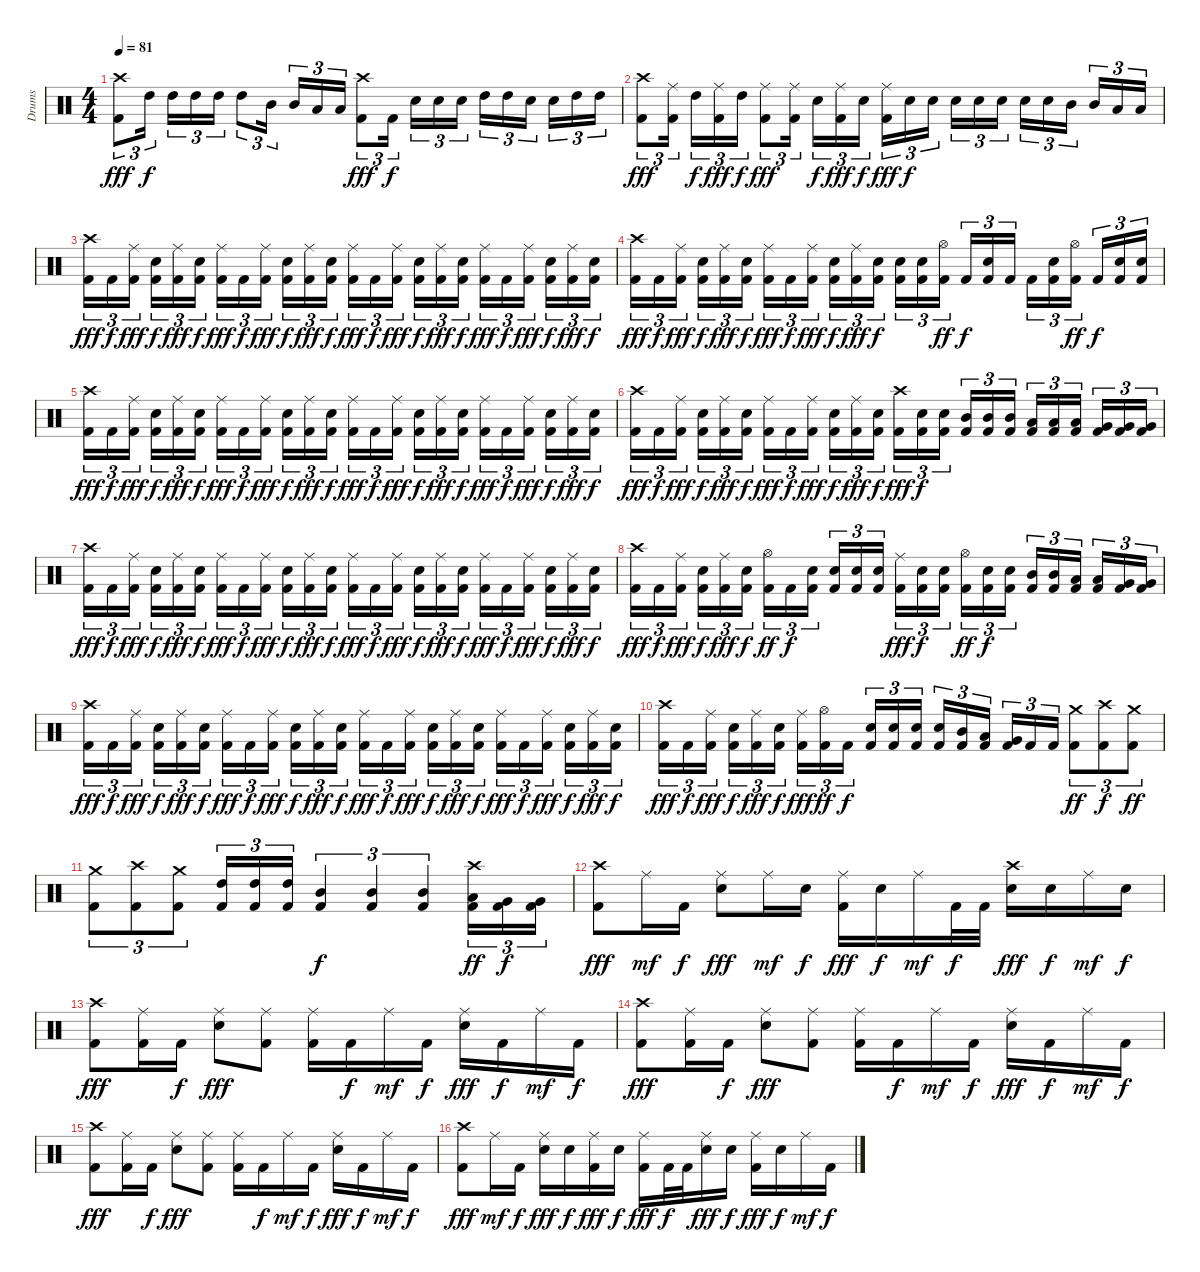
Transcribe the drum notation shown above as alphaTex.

\track ("Drums" "Drums") {instrument percussion}
\staff {score}
\articulation defaults
\ts (4 4)
\tempo 81
\clef neutral
\ks c
("Crash high (hit)" "Kick (hit) 2").8{tu (3 2) dy fff} "High Tom (hit)".16{tu (3 2) dy f} "High Tom (hit)".16{tu (3 2)} "High Tom (hit)".16{tu (3 2)} "High Tom (hit)".16{tu (3 2)} "High Tom (hit)".8{tu (3 2)} "Mid Tom (hit)".16{tu (3 2)} "Mid Tom (hit)".16{tu (3 2)} "Low Tom (hit)".16{tu (3 2)} "Low Tom (hit)".16{tu (3 2)} ("Crash high (hit)" "Kick (hit) 2").8{tu (3 2) dy fff} "Kick (hit) 2".16{tu (3 2) dy f} "Electric Snare (hit)".16{tu (3 2)} "Electric Snare (hit)".16{tu (3 2)} "Electric Snare (hit)".16{tu (3 2)} "High Tom (hit)".16{tu (3 2)} "High Tom (hit)".16{tu (3 2)} "Electric Snare (hit)".16{tu (3 2)} "Electric Snare (hit)".16{tu (3 2)} "High Tom (hit)".16{tu (3 2)} "High Tom (hit)".16{tu (3 2)} |
("Crash high (hit)" "Kick (hit) 2").8{tu (3 2) dy fff} ("Ride (middle)" "Kick (hit) 2").16{tu (3 2)} "High Tom (hit)".16{tu (3 2) dy f} ("Ride (middle)" "Kick (hit) 2").16{tu (3 2) dy fff} "High Tom (hit)".16{tu (3 2) dy f} ("Ride (middle)" "Kick (hit) 2").8{tu (3 2) dy fff} ("Ride (middle)" "Kick (hit) 2").16{tu (3 2)} "Electric Snare (hit)".16{tu (3 2) dy f} ("Ride (middle)" "Kick (hit) 2").16{tu (3 2) dy fff} "Electric Snare (hit)".16{tu (3 2) dy f} ("Ride (middle)" "Kick (hit) 2").16{tu (3 2) dy fff} "Electric Snare (hit)".16{tu (3 2) dy f} "Electric Snare (hit)".16{tu (3 2)} "Electric Snare (hit)".16{tu (3 2)} "Electric Snare (hit)".16{tu (3 2)} "Electric Snare (hit)".16{tu (3 2)} "Electric Snare (hit)".16{tu (3 2)} "Electric Snare (hit)".16{tu (3 2)} "Mid Tom (hit)".16{tu (3 2)} "Mid Tom (hit)".16{tu (3 2)} "Low Tom (hit)".16{tu (3 2)} "Low Tom (hit)".16{tu (3 2)} |
("Crash high (hit)" "Kick (hit) 2").16{tu (3 2) dy fff} "Kick (hit) 2".16{tu (3 2) dy f} ("Ride (middle)" "Kick (hit) 2").16{tu (3 2) dy fff} ("Electric Snare (hit)" "Kick (hit) 2").16{tu (3 2) dy f} ("Ride (middle)" "Kick (hit) 2").16{tu (3 2) dy fff} ("Electric Snare (hit)" "Kick (hit) 2").16{tu (3 2) dy f} ("Ride (middle)" "Kick (hit) 2").16{tu (3 2) dy fff} "Kick (hit) 2".16{tu (3 2) dy f} ("Ride (middle)" "Kick (hit) 2").16{tu (3 2) dy fff} ("Electric Snare (hit)" "Kick (hit) 2").16{tu (3 2) dy f} ("Ride (middle)" "Kick (hit) 2").16{tu (3 2) dy fff} ("Electric Snare (hit)" "Kick (hit) 2").16{tu (3 2) dy f} ("Ride (middle)" "Kick (hit) 2").16{tu (3 2) dy fff} "Kick (hit) 2".16{tu (3 2) dy f} ("Ride (middle)" "Kick (hit) 2").16{tu (3 2) dy fff} ("Electric Snare (hit)" "Kick (hit) 2").16{tu (3 2) dy f} ("Ride (middle)" "Kick (hit) 2").16{tu (3 2) dy fff} ("Electric Snare (hit)" "Kick (hit) 2").16{tu (3 2) dy f} ("Ride (middle)" "Kick (hit) 2").16{tu (3 2) dy fff} "Kick (hit) 2".16{tu (3 2) dy f} ("Ride (middle)" "Kick (hit) 2").16{tu (3 2) dy fff} ("Electric Snare (hit)" "Kick (hit) 2").16{tu (3 2) dy f} ("Ride (middle)" "Kick (hit) 2").16{tu (3 2) dy fff} ("Electric Snare (hit)" "Kick (hit) 2").16{tu (3 2) dy f} |
("Crash high (hit)" "Kick (hit) 2").16{tu (3 2) dy fff} "Kick (hit) 2".16{tu (3 2) dy f} ("Ride (middle)" "Kick (hit) 2").16{tu (3 2) dy fff} ("Electric Snare (hit)" "Kick (hit) 2").16{tu (3 2) dy f} ("Ride (middle)" "Kick (hit) 2").16{tu (3 2) dy fff} ("Electric Snare (hit)" "Kick (hit) 2").16{tu (3 2) dy f} ("Ride (middle)" "Kick (hit) 2").16{tu (3 2) dy fff} "Kick (hit) 2".16{tu (3 2) dy f} ("Ride (middle)" "Kick (hit) 2").16{tu (3 2) dy fff} ("Electric Snare (hit)" "Kick (hit) 2").16{tu (3 2) dy f} ("Ride (middle)" "Kick (hit) 2").16{tu (3 2) dy fff} ("Electric Snare (hit)" "Kick (hit) 2").16{tu (3 2) dy f} ("Electric Snare (hit)" "Kick (hit) 2").16{tu (3 2)} ("Electric Snare (hit)" "Kick (hit) 2").16{tu (3 2)} ("Hi-Hat (open)" "Kick (hit) 2").16{tu (3 2) dy ff} "Kick (hit) 2".16{tu (3 2) dy f} ("Electric Snare (hit)" "Kick (hit) 2").16{tu (3 2)} "Kick (hit) 2".16{tu (3 2)} "Kick (hit) 2".16{tu (3 2)} ("Electric Snare (hit)" "Kick (hit) 2").16{tu (3 2)} ("Hi-Hat (open)" "Kick (hit) 2").16{tu (3 2) dy ff} "Kick (hit) 2".16{tu (3 2) dy f} ("Electric Snare (hit)" "Kick (hit) 2").16{tu (3 2)} ("Electric Snare (hit)" "Kick (hit) 2").16{tu (3 2)} |
("Crash high (hit)" "Kick (hit) 2").16{tu (3 2) dy fff} "Kick (hit) 2".16{tu (3 2) dy f} ("Ride (middle)" "Kick (hit) 2").16{tu (3 2) dy fff} ("Electric Snare (hit)" "Kick (hit) 2").16{tu (3 2) dy f} ("Ride (middle)" "Kick (hit) 2").16{tu (3 2) dy fff} ("Electric Snare (hit)" "Kick (hit) 2").16{tu (3 2) dy f} ("Ride (middle)" "Kick (hit) 2").16{tu (3 2) dy fff} "Kick (hit) 2".16{tu (3 2) dy f} ("Ride (middle)" "Kick (hit) 2").16{tu (3 2) dy fff} ("Electric Snare (hit)" "Kick (hit) 2").16{tu (3 2) dy f} ("Ride (middle)" "Kick (hit) 2").16{tu (3 2) dy fff} ("Electric Snare (hit)" "Kick (hit) 2").16{tu (3 2) dy f} ("Ride (middle)" "Kick (hit) 2").16{tu (3 2) dy fff} "Kick (hit) 2".16{tu (3 2) dy f} ("Ride (middle)" "Kick (hit) 2").16{tu (3 2) dy fff} ("Electric Snare (hit)" "Kick (hit) 2").16{tu (3 2) dy f} ("Ride (middle)" "Kick (hit) 2").16{tu (3 2) dy fff} ("Electric Snare (hit)" "Kick (hit) 2").16{tu (3 2) dy f} ("Ride (middle)" "Kick (hit) 2").16{tu (3 2) dy fff} "Kick (hit) 2".16{tu (3 2) dy f} ("Ride (middle)" "Kick (hit) 2").16{tu (3 2) dy fff} ("Electric Snare (hit)" "Kick (hit) 2").16{tu (3 2) dy f} ("Ride (middle)" "Kick (hit) 2").16{tu (3 2) dy fff} ("Electric Snare (hit)" "Kick (hit) 2").16{tu (3 2) dy f} |
("Crash high (hit)" "Kick (hit) 2").16{tu (3 2) dy fff} "Kick (hit) 2".16{tu (3 2) dy f} ("Ride (middle)" "Kick (hit) 2").16{tu (3 2) dy fff} ("Electric Snare (hit)" "Kick (hit) 2").16{tu (3 2) dy f} ("Ride (middle)" "Kick (hit) 2").16{tu (3 2) dy fff} ("Electric Snare (hit)" "Kick (hit) 2").16{tu (3 2) dy f} ("Ride (middle)" "Kick (hit) 2").16{tu (3 2) dy fff} "Kick (hit) 2".16{tu (3 2) dy f} ("Ride (middle)" "Kick (hit) 2").16{tu (3 2) dy fff} ("Electric Snare (hit)" "Kick (hit) 2").16{tu (3 2) dy f} ("Ride (middle)" "Kick (hit) 2").16{tu (3 2) dy fff} ("Electric Snare (hit)" "Kick (hit) 2").16{tu (3 2) dy f} ("Crash high (hit)" "Kick (hit) 2").16{tu (3 2) dy fff} ("Electric Snare (hit)" "Kick (hit) 2").16{tu (3 2) dy f} ("Electric Snare (hit)" "Kick (hit) 2").16{tu (3 2)} ("Mid Tom (hit)" "Kick (hit) 2").16{tu (3 2)} ("Mid Tom (hit)" "Kick (hit) 2").16{tu (3 2)} ("Mid Tom (hit)" "Kick (hit) 2").16{tu (3 2)} ("Low Tom (hit)" "Kick (hit) 2").16{tu (3 2)} ("Low Tom (hit)" "Kick (hit) 2").16{tu (3 2)} ("Low Tom (hit)" "Kick (hit) 2").16{tu (3 2)} ("Very Low Tom (hit)" "Kick (hit) 2").16{tu (3 2)} ("Very Low Tom (hit)" "Kick (hit) 2").16{tu (3 2)} ("Very Low Tom (hit)" "Kick (hit) 2").16{tu (3 2)} |
("Crash high (hit)" "Kick (hit) 2").16{tu (3 2) dy fff} "Kick (hit) 2".16{tu (3 2) dy f} ("Ride (middle)" "Kick (hit) 2").16{tu (3 2) dy fff} ("Electric Snare (hit)" "Kick (hit) 2").16{tu (3 2) dy f} ("Ride (middle)" "Kick (hit) 2").16{tu (3 2) dy fff} ("Electric Snare (hit)" "Kick (hit) 2").16{tu (3 2) dy f} ("Ride (middle)" "Kick (hit) 2").16{tu (3 2) dy fff} "Kick (hit) 2".16{tu (3 2) dy f} ("Ride (middle)" "Kick (hit) 2").16{tu (3 2) dy fff} ("Electric Snare (hit)" "Kick (hit) 2").16{tu (3 2) dy f} ("Ride (middle)" "Kick (hit) 2").16{tu (3 2) dy fff} ("Electric Snare (hit)" "Kick (hit) 2").16{tu (3 2) dy f} ("Ride (middle)" "Kick (hit) 2").16{tu (3 2) dy fff} "Kick (hit) 2".16{tu (3 2) dy f} ("Ride (middle)" "Kick (hit) 2").16{tu (3 2) dy fff} ("Electric Snare (hit)" "Kick (hit) 2").16{tu (3 2) dy f} ("Ride (middle)" "Kick (hit) 2").16{tu (3 2) dy fff} ("Electric Snare (hit)" "Kick (hit) 2").16{tu (3 2) dy f} ("Ride (middle)" "Kick (hit) 2").16{tu (3 2) dy fff} "Kick (hit) 2".16{tu (3 2) dy f} ("Ride (middle)" "Kick (hit) 2").16{tu (3 2) dy fff} ("Electric Snare (hit)" "Kick (hit) 2").16{tu (3 2) dy f} ("Ride (middle)" "Kick (hit) 2").16{tu (3 2) dy fff} ("Electric Snare (hit)" "Kick (hit) 2").16{tu (3 2) dy f} |
("Crash high (hit)" "Kick (hit) 2").16{tu (3 2) dy fff} "Kick (hit) 2".16{tu (3 2) dy f} ("Ride (middle)" "Kick (hit) 2").16{tu (3 2) dy fff} ("Electric Snare (hit)" "Kick (hit) 2").16{tu (3 2) dy f} ("Ride (middle)" "Kick (hit) 2").16{tu (3 2) dy fff} ("Electric Snare (hit)" "Kick (hit) 2").16{tu (3 2) dy f} ("Hi-Hat (open)" "Kick (hit) 2").16{tu (3 2) dy ff} "Kick (hit) 2".16{tu (3 2) dy f} ("Electric Snare (hit)" "Kick (hit) 2").16{tu (3 2)} ("Electric Snare (hit)" "Kick (hit) 2").16{tu (3 2)} ("Electric Snare (hit)" "Kick (hit) 2").16{tu (3 2)} ("Electric Snare (hit)" "Kick (hit) 2").16{tu (3 2)} ("Ride (middle)" "Kick (hit) 2").16{tu (3 2) dy fff} ("Electric Snare (hit)" "Kick (hit) 2").16{tu (3 2) dy f} ("Electric Snare (hit)" "Kick (hit) 2").16{tu (3 2)} ("Hi-Hat (open)" "Kick (hit) 2").16{tu (3 2) dy ff} ("Electric Snare (hit)" "Kick (hit) 2").16{tu (3 2) dy f} ("Electric Snare (hit)" "Kick (hit) 2").16{tu (3 2)} ("Mid Tom (hit)" "Kick (hit) 2").16{tu (3 2)} ("Mid Tom (hit)" "Kick (hit) 2").16{tu (3 2)} ("Low Tom (hit)" "Kick (hit) 2").16{tu (3 2)} ("Low Tom (hit)" "Kick (hit) 2").16{tu (3 2)} ("Very Low Tom (hit)" "Kick (hit) 2").16{tu (3 2)} ("Very Low Tom (hit)" "Kick (hit) 2").16{tu (3 2)} |
("Crash high (hit)" "Kick (hit) 2").16{tu (3 2) dy fff} "Kick (hit) 2".16{tu (3 2) dy f} ("Ride (middle)" "Kick (hit) 2").16{tu (3 2) dy fff} ("Electric Snare (hit)" "Kick (hit) 2").16{tu (3 2) dy f} ("Ride (middle)" "Kick (hit) 2").16{tu (3 2) dy fff} ("Electric Snare (hit)" "Kick (hit) 2").16{tu (3 2) dy f} ("Ride (middle)" "Kick (hit) 2").16{tu (3 2) dy fff} "Kick (hit) 2".16{tu (3 2) dy f} ("Ride (middle)" "Kick (hit) 2").16{tu (3 2) dy fff} ("Electric Snare (hit)" "Kick (hit) 2").16{tu (3 2) dy f} ("Ride (middle)" "Kick (hit) 2").16{tu (3 2) dy fff} ("Electric Snare (hit)" "Kick (hit) 2").16{tu (3 2) dy f} ("Ride (middle)" "Kick (hit) 2").16{tu (3 2) dy fff} "Kick (hit) 2".16{tu (3 2) dy f} ("Ride (middle)" "Kick (hit) 2").16{tu (3 2) dy fff} ("Electric Snare (hit)" "Kick (hit) 2").16{tu (3 2) dy f} ("Ride (middle)" "Kick (hit) 2").16{tu (3 2) dy fff} ("Electric Snare (hit)" "Kick (hit) 2").16{tu (3 2) dy f} ("Ride (middle)" "Kick (hit) 2").16{tu (3 2) dy fff} "Kick (hit) 2".16{tu (3 2) dy f} ("Ride (middle)" "Kick (hit) 2").16{tu (3 2) dy fff} ("Electric Snare (hit)" "Kick (hit) 2").16{tu (3 2) dy f} ("Ride (middle)" "Kick (hit) 2").16{tu (3 2) dy fff} ("Electric Snare (hit)" "Kick (hit) 2").16{tu (3 2) dy f} |
("Crash high (hit)" "Kick (hit) 2").16{tu (3 2) dy fff} "Kick (hit) 2".16{tu (3 2) dy f} ("Ride (middle)" "Kick (hit) 2").16{tu (3 2) dy fff} ("Electric Snare (hit)" "Kick (hit) 2").16{tu (3 2) dy f} ("Ride (middle)" "Kick (hit) 2").16{tu (3 2) dy fff} ("Electric Snare (hit)" "Kick (hit) 2").16{tu (3 2) dy f} ("Ride (middle)" "Kick (hit) 2").16{tu (3 2) dy fff} ("Hi-Hat (open)" "Kick (hit) 2").16{tu (3 2) dy ff} "Kick (hit) 2".16{tu (3 2) dy f} ("Electric Snare (hit)" "Kick (hit) 2").16{tu (3 2)} ("Electric Snare (hit)" "Kick (hit) 2").16{tu (3 2)} ("Electric Snare (hit)" "Kick (hit) 2").16{tu (3 2)} ("Electric Snare (hit)" "Kick (hit) 2").16{tu (3 2)} ("Mid Tom (hit)" "Kick (hit) 2").16{tu (3 2)} ("Low Tom (hit)" "Kick (hit) 2").16{tu (3 2)} ("Very Low Tom (hit)" "Kick (hit) 2").16{tu (3 2)} "Kick (hit) 2".16{tu (3 2)} "Kick (hit) 2".16{tu (3 2)} ("Crash medium (hit)" "Kick (hit) 2").8{tu (3 2) dy ff} ("Crash high (hit)" "Kick (hit) 2").8{tu (3 2) dy f} ("Crash medium (hit)" "Kick (hit) 2").8{tu (3 2) dy ff} |
("Crash medium (hit)" "Kick (hit) 2").8{tu (3 2)} ("Crash high (hit)" "Kick (hit) 2").8{tu (3 2)} ("Crash medium (hit)" "Kick (hit) 2").8{tu (3 2)} ("High Tom (hit)" "Kick (hit) 2").16{tu (3 2)} ("High Tom (hit)" "Kick (hit) 2").16{tu (3 2)} ("High Tom (hit)" "Kick (hit) 2").16{tu (3 2)} ("Mid Tom (hit)" "Kick (hit) 2").4{tu (3 2) dy f} ("Mid Tom (hit)" "Kick (hit) 2").4{tu (3 2)} ("Mid Tom (hit)" "Kick (hit) 2").4{tu (3 2)} ("Crash high (hit)" "Low Tom (hit)" "Kick (hit) 2").16{tu (3 2) dy ff} ("Very Low Tom (hit)" "Kick (hit) 2").16{tu (3 2) dy f} ("Very Low Tom (hit)" "Kick (hit) 2").16{tu (3 2)} |
("Crash high (hit)" "Kick (hit) 2").8{dy fff} "Ride (middle)".16{dy mf} "Kick (hit) 2".16{dy f} ("Ride (middle)" "Electric Snare (hit)").8{dy fff} "Ride (middle)".16{dy mf} "Electric Snare (hit)".16{dy f} ("Ride (middle)" "Kick (hit) 2").16{dy fff} "Electric Snare (hit)".16{dy f} "Ride (middle)".16{dy mf} "Kick (hit) 2".32{dy f} "Kick (hit) 2".32 ("Crash high (hit)" "Electric Snare (hit)").16{dy fff} "Electric Snare (hit)".16{dy f} "Ride (middle)".16{dy mf} "Electric Snare (hit)".16{dy f} |
("Crash high (hit)" "Kick (hit) 2").8{dy fff} ("Ride (middle)" "Kick (hit) 2").16 "Kick (hit) 2".16{dy f} ("Ride (middle)" "Electric Snare (hit)").8{dy fff} ("Ride (middle)" "Kick (hit) 2").8 ("Ride (middle)" "Kick (hit) 2").16 "Kick (hit) 2".16{dy f} "Ride (middle)".16{dy mf} "Kick (hit) 2".16{dy f} ("Ride (middle)" "Electric Snare (hit)").16{dy fff} "Kick (hit) 2".16{dy f} "Ride (middle)".16{dy mf} "Kick (hit) 2".16{dy f} |
("Crash high (hit)" "Kick (hit) 2").8{dy fff} ("Ride (middle)" "Kick (hit) 2").16 "Kick (hit) 2".16{dy f} ("Ride (middle)" "Electric Snare (hit)").8{dy fff} ("Ride (middle)" "Kick (hit) 2").8 ("Ride (middle)" "Kick (hit) 2").16 "Kick (hit) 2".16{dy f} "Ride (middle)".16{dy mf} "Kick (hit) 2".16{dy f} ("Ride (middle)" "Electric Snare (hit)").16{dy fff} "Kick (hit) 2".16{dy f} "Ride (middle)".16{dy mf} "Kick (hit) 2".16{dy f} |
("Crash high (hit)" "Kick (hit) 2").8{dy fff} ("Ride (middle)" "Kick (hit) 2").16 "Kick (hit) 2".16{dy f} ("Ride (middle)" "Electric Snare (hit)").8{dy fff} ("Ride (middle)" "Kick (hit) 2").8 ("Ride (middle)" "Kick (hit) 2").16 "Kick (hit) 2".16{dy f} "Ride (middle)".16{dy mf} "Kick (hit) 2".16{dy f} ("Ride (middle)" "Electric Snare (hit)").16{dy fff} "Kick (hit) 2".16{dy f} "Ride (middle)".16{dy mf} "Kick (hit) 2".16{dy f} |
("Crash high (hit)" "Kick (hit) 2").8{dy fff} "Ride (middle)".16{dy mf} "Kick (hit) 2".16{dy f} ("Ride (middle)" "Electric Snare (hit)").16{dy fff} "Electric Snare (hit)".16{dy f} ("Ride (middle)" "Kick (hit) 2").16{dy fff} "Electric Snare (hit)".16{dy f} ("Ride (middle)" "Kick (hit) 2").16{dy fff} "Kick (hit) 2".32{dy f} "Kick (hit) 2".32 ("Ride (middle)" "Electric Snare (hit)").16{dy fff} "Electric Snare (hit)".16{dy f} ("Ride (middle)" "Kick (hit) 2").16{dy fff} "Electric Snare (hit)".16{dy f} "Ride (middle)".16{dy mf} "Kick (hit) 2".16{dy f}
